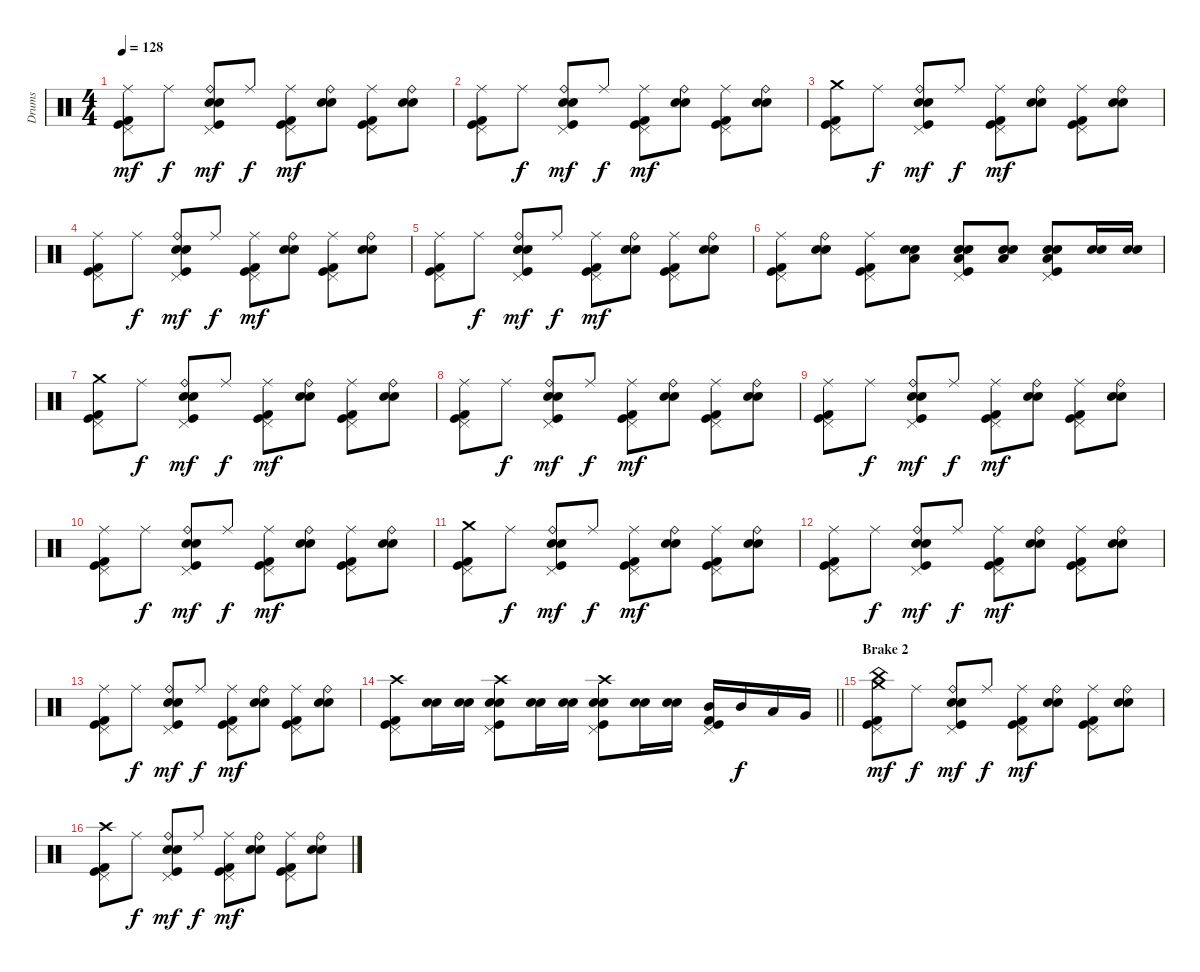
\track ("Drums" "Drums") {instrument percussion}
\staff {score}
\articulation defaults
\ts (4 4)
\tempo 128
\clef neutral
\ks c
("Ride (middle)" "Pedal Hi-Hat (hit)" "Kick (hit) 2" "Kick (hit)").8{dy mf} "Ride (middle)".8{dy f} ("Ride (bell)" "Pedal Hi-Hat (hit)" "Snare (hit) 2" "Electric Snare (hit)" "Kick (hit)").8{dy mf} "Ride (middle)".8{dy f} ("Ride (middle)" "Pedal Hi-Hat (hit)" "Kick (hit) 2" "Kick (hit)").8{dy mf} ("Ride (bell)" "Snare (hit) 2" "Electric Snare (hit)").8 ("Ride (middle)" "Pedal Hi-Hat (hit)" "Kick (hit) 2" "Kick (hit)").8 ("Ride (bell)" "Snare (hit) 2" "Electric Snare (hit)").8 |
("Ride (middle)" "Pedal Hi-Hat (hit)" "Kick (hit) 2" "Kick (hit)").8 "Ride (middle)".8{dy f} ("Ride (bell)" "Pedal Hi-Hat (hit)" "Snare (hit) 2" "Electric Snare (hit)" "Kick (hit)").8{dy mf} "Ride (middle)".8{dy f} ("Ride (middle)" "Pedal Hi-Hat (hit)" "Kick (hit) 2" "Kick (hit)").8{dy mf} ("Ride (bell)" "Snare (hit) 2" "Electric Snare (hit)").8 ("Ride (middle)" "Pedal Hi-Hat (hit)" "Kick (hit) 2" "Kick (hit)").8 ("Ride (bell)" "Snare (hit) 2" "Electric Snare (hit)").8 |
("Crash medium (hit)" "Pedal Hi-Hat (hit)" "Kick (hit) 2" "Kick (hit)").8 "Ride (middle)".8{dy f} ("Ride (bell)" "Pedal Hi-Hat (hit)" "Snare (hit) 2" "Electric Snare (hit)" "Kick (hit)").8{dy mf} "Ride (middle)".8{dy f} ("Ride (middle)" "Pedal Hi-Hat (hit)" "Kick (hit) 2" "Kick (hit)").8{dy mf} ("Ride (bell)" "Snare (hit) 2" "Electric Snare (hit)").8 ("Ride (middle)" "Pedal Hi-Hat (hit)" "Kick (hit) 2" "Kick (hit)").8 ("Ride (bell)" "Snare (hit) 2" "Electric Snare (hit)").8 |
("Ride (middle)" "Pedal Hi-Hat (hit)" "Kick (hit) 2" "Kick (hit)").8 "Ride (middle)".8{dy f} ("Ride (bell)" "Pedal Hi-Hat (hit)" "Snare (hit) 2" "Electric Snare (hit)" "Kick (hit)").8{dy mf} "Ride (middle)".8{dy f} ("Ride (middle)" "Pedal Hi-Hat (hit)" "Kick (hit) 2" "Kick (hit)").8{dy mf} ("Ride (bell)" "Snare (hit) 2" "Electric Snare (hit)").8 ("Ride (middle)" "Pedal Hi-Hat (hit)" "Kick (hit) 2" "Kick (hit)").8 ("Ride (bell)" "Snare (hit) 2" "Electric Snare (hit)").8 |
("Ride (middle)" "Pedal Hi-Hat (hit)" "Kick (hit) 2" "Kick (hit)").8 "Ride (middle)".8{dy f} ("Ride (bell)" "Pedal Hi-Hat (hit)" "Snare (hit) 2" "Electric Snare (hit)" "Kick (hit)").8{dy mf} "Ride (middle)".8{dy f} ("Ride (middle)" "Pedal Hi-Hat (hit)" "Kick (hit) 2" "Kick (hit)").8{dy mf} ("Ride (bell)" "Snare (hit) 2" "Electric Snare (hit)").8 ("Ride (middle)" "Pedal Hi-Hat (hit)" "Kick (hit) 2" "Kick (hit)").8 ("Ride (bell)" "Snare (hit) 2" "Electric Snare (hit)").8 |
("Ride (middle)" "Pedal Hi-Hat (hit)" "Kick (hit) 2" "Kick (hit)").8 ("Ride (bell)" "Snare (hit) 2" "Electric Snare (hit)").8 ("Ride (middle)" "Pedal Hi-Hat (hit)" "Kick (hit) 2" "Kick (hit)").8 ("Low Floor Tom (hit)" "Snare (hit) 2" "Electric Snare (hit)").8 ("Pedal Hi-Hat (hit)" "Low Floor Tom (hit)" "Snare (hit) 2" "Electric Snare (hit)" "Kick (hit)").8 ("Low Floor Tom (hit)" "Snare (hit) 2" "Electric Snare (hit)").8 ("Pedal Hi-Hat (hit)" "Low Floor Tom (hit)" "Snare (hit) 2" "Electric Snare (hit)" "Kick (hit)").8 ("Snare (hit) 2" "Electric Snare (hit)").16 ("Snare (hit) 2" "Electric Snare (hit)").16 |
("Crash medium (hit)" "Pedal Hi-Hat (hit)" "Kick (hit) 2" "Kick (hit)").8 "Ride (middle)".8{dy f} ("Ride (bell)" "Pedal Hi-Hat (hit)" "Snare (hit) 2" "Electric Snare (hit)" "Kick (hit)").8{dy mf} "Ride (middle)".8{dy f} ("Ride (middle)" "Pedal Hi-Hat (hit)" "Kick (hit) 2" "Kick (hit)").8{dy mf} ("Ride (bell)" "Snare (hit) 2" "Electric Snare (hit)").8 ("Ride (middle)" "Pedal Hi-Hat (hit)" "Kick (hit) 2" "Kick (hit)").8 ("Ride (bell)" "Snare (hit) 2" "Electric Snare (hit)").8 |
("Ride (middle)" "Pedal Hi-Hat (hit)" "Kick (hit) 2" "Kick (hit)").8 "Ride (middle)".8{dy f} ("Ride (bell)" "Pedal Hi-Hat (hit)" "Snare (hit) 2" "Electric Snare (hit)" "Kick (hit)").8{dy mf} "Ride (middle)".8{dy f} ("Ride (middle)" "Pedal Hi-Hat (hit)" "Kick (hit) 2" "Kick (hit)").8{dy mf} ("Ride (bell)" "Snare (hit) 2" "Electric Snare (hit)").8 ("Ride (middle)" "Pedal Hi-Hat (hit)" "Kick (hit) 2" "Kick (hit)").8 ("Ride (bell)" "Snare (hit) 2" "Electric Snare (hit)").8 |
("Ride (middle)" "Pedal Hi-Hat (hit)" "Kick (hit) 2" "Kick (hit)").8 "Ride (middle)".8{dy f} ("Ride (bell)" "Pedal Hi-Hat (hit)" "Snare (hit) 2" "Electric Snare (hit)" "Kick (hit)").8{dy mf} "Ride (middle)".8{dy f} ("Ride (middle)" "Pedal Hi-Hat (hit)" "Kick (hit) 2" "Kick (hit)").8{dy mf} ("Ride (bell)" "Snare (hit) 2" "Electric Snare (hit)").8 ("Ride (middle)" "Pedal Hi-Hat (hit)" "Kick (hit) 2" "Kick (hit)").8 ("Ride (bell)" "Snare (hit) 2" "Electric Snare (hit)").8 |
("Ride (middle)" "Pedal Hi-Hat (hit)" "Kick (hit) 2" "Kick (hit)").8 "Ride (middle)".8{dy f} ("Ride (bell)" "Pedal Hi-Hat (hit)" "Snare (hit) 2" "Electric Snare (hit)" "Kick (hit)").8{dy mf} "Ride (middle)".8{dy f} ("Ride (middle)" "Pedal Hi-Hat (hit)" "Kick (hit) 2" "Kick (hit)").8{dy mf} ("Ride (bell)" "Snare (hit) 2" "Electric Snare (hit)").8 ("Ride (middle)" "Pedal Hi-Hat (hit)" "Kick (hit) 2" "Kick (hit)").8 ("Ride (bell)" "Snare (hit) 2" "Electric Snare (hit)").8 |
("Crash medium (hit)" "Pedal Hi-Hat (hit)" "Kick (hit) 2" "Kick (hit)").8 "Ride (middle)".8{dy f} ("Ride (bell)" "Pedal Hi-Hat (hit)" "Snare (hit) 2" "Electric Snare (hit)" "Kick (hit)").8{dy mf} "Ride (middle)".8{dy f} ("Ride (middle)" "Pedal Hi-Hat (hit)" "Kick (hit) 2" "Kick (hit)").8{dy mf} ("Ride (bell)" "Snare (hit) 2" "Electric Snare (hit)").8 ("Ride (middle)" "Pedal Hi-Hat (hit)" "Kick (hit) 2" "Kick (hit)").8 ("Ride (bell)" "Snare (hit) 2" "Electric Snare (hit)").8 |
("Ride (middle)" "Pedal Hi-Hat (hit)" "Kick (hit) 2" "Kick (hit)").8 "Ride (middle)".8{dy f} ("Ride (bell)" "Pedal Hi-Hat (hit)" "Snare (hit) 2" "Electric Snare (hit)" "Kick (hit)").8{dy mf} "Ride (middle)".8{dy f} ("Ride (middle)" "Pedal Hi-Hat (hit)" "Kick (hit) 2" "Kick (hit)").8{dy mf} ("Ride (bell)" "Snare (hit) 2" "Electric Snare (hit)").8 ("Ride (middle)" "Pedal Hi-Hat (hit)" "Kick (hit) 2" "Kick (hit)").8 ("Ride (bell)" "Snare (hit) 2" "Electric Snare (hit)").8 |
("Ride (middle)" "Pedal Hi-Hat (hit)" "Kick (hit) 2" "Kick (hit)").8 "Ride (middle)".8{dy f} ("Ride (bell)" "Pedal Hi-Hat (hit)" "Snare (hit) 2" "Electric Snare (hit)" "Kick (hit)").8{dy mf} "Ride (middle)".8{dy f} ("Ride (middle)" "Pedal Hi-Hat (hit)" "Kick (hit) 2" "Kick (hit)").8{dy mf} ("Ride (bell)" "Snare (hit) 2" "Electric Snare (hit)").8 ("Ride (middle)" "Pedal Hi-Hat (hit)" "Kick (hit) 2" "Kick (hit)").8 ("Ride (bell)" "Snare (hit) 2" "Electric Snare (hit)").8 |
\barLineRight lightlight
("Crash high (hit)" "Pedal Hi-Hat (hit)" "Kick (hit) 2" "Kick (hit)").8 ("Snare (hit) 2" "Electric Snare (hit)").16 ("Snare (hit) 2" "Electric Snare (hit)").16 ("Crash high (hit)" "Pedal Hi-Hat (hit)" "Snare (hit) 2" "Electric Snare (hit)" "Kick (hit)").8 ("Snare (hit) 2" "Electric Snare (hit)").16 ("Snare (hit) 2" "Electric Snare (hit)").16 ("Crash high (hit)" "Pedal Hi-Hat (hit)" "Snare (hit) 2" "Electric Snare (hit)" "Kick (hit)").8 ("Snare (hit) 2" "Electric Snare (hit)").16 ("Snare (hit) 2" "Electric Snare (hit)").16 ("Mid Tom (hit)" "Pedal Hi-Hat (hit)" "Kick (hit) 2" "Kick (hit)").16 "Mid Tom (hit)".16{dy f} "Low Tom (hit)".16 "Very Low Tom (hit)".16 |
\section ("" "Brake 2")
("Crash medium (hit)" "China (hit)" "Pedal Hi-Hat (hit)" "Kick (hit) 2" "Kick (hit)").8{dy mf} "Ride (middle)".8{dy f} ("Ride (bell)" "Pedal Hi-Hat (hit)" "Snare (hit) 2" "Electric Snare (hit)" "Kick (hit)").8{dy mf} "Ride (middle)".8{dy f} ("Ride (middle)" "Pedal Hi-Hat (hit)" "Kick (hit) 2" "Kick (hit)").8{dy mf} ("Ride (bell)" "Snare (hit) 2" "Electric Snare (hit)").8 ("Ride (middle)" "Pedal Hi-Hat (hit)" "Kick (hit) 2" "Kick (hit)").8 ("Ride (bell)" "Snare (hit) 2" "Electric Snare (hit)").8 |
("Crash high (hit)" "Pedal Hi-Hat (hit)" "Kick (hit) 2" "Kick (hit)").8 "Ride (middle)".8{dy f} ("Ride (bell)" "Pedal Hi-Hat (hit)" "Snare (hit) 2" "Electric Snare (hit)" "Kick (hit)").8{dy mf} "Ride (middle)".8{dy f} ("Ride (middle)" "Pedal Hi-Hat (hit)" "Kick (hit) 2" "Kick (hit)").8{dy mf} ("Ride (bell)" "Snare (hit) 2" "Electric Snare (hit)").8 ("Ride (middle)" "Pedal Hi-Hat (hit)" "Kick (hit) 2" "Kick (hit)").8 ("Ride (bell)" "Snare (hit) 2" "Electric Snare (hit)").8
